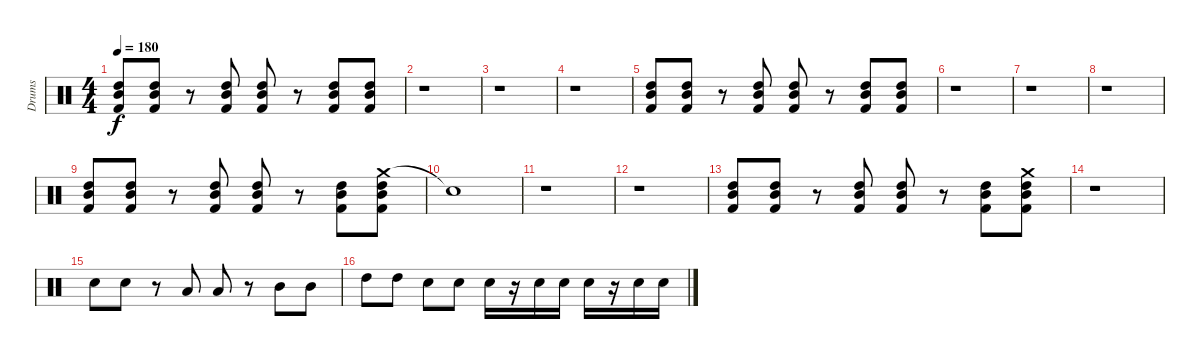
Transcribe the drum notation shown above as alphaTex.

\track ("Drums" "Drums") {instrument percussion}
\staff {score}
\articulation defaults
\ts (4 4)
\tempo 180
\clef neutral
\ks c
("Mid Tom (hit)" "High Tom (hit)" "Kick (hit) 2").8{dy f} ("High Tom (hit)" "Mid Tom (hit)" "Kick (hit) 2").8 r.8 ("Mid Tom (hit)" "High Tom (hit)" "Kick (hit) 2").8 ("Mid Tom (hit)" "High Tom (hit)" "Kick (hit) 2").8 r.8 ("Mid Tom (hit)" "High Tom (hit)" "Kick (hit) 2").8 ("Mid Tom (hit)" "High Tom (hit)" "Kick (hit) 2").8 |
r.1 |
r.1 |
r.1 |
("Mid Tom (hit)" "High Tom (hit)" "Kick (hit) 2").8 ("High Tom (hit)" "Mid Tom (hit)" "Kick (hit) 2").8 r.8 ("Mid Tom (hit)" "High Tom (hit)" "Kick (hit) 2").8 ("Mid Tom (hit)" "High Tom (hit)" "Kick (hit) 2").8 r.8 ("Mid Tom (hit)" "High Tom (hit)" "Kick (hit) 2").8 ("Mid Tom (hit)" "High Tom (hit)" "Kick (hit) 2").8 |
r.1 |
r.1 |
r.1 |
("Mid Tom (hit)" "High Tom (hit)" "Kick (hit) 2").8 ("High Tom (hit)" "Mid Tom (hit)" "Kick (hit) 2").8 r.8 ("Mid Tom (hit)" "High Tom (hit)" "Kick (hit) 2").8 ("Mid Tom (hit)" "High Tom (hit)" "Kick (hit) 2").8 r.8 ("Mid Tom (hit)" "High Tom (hit)" "Kick (hit) 2").8 ("Crash medium (hit)" "Mid Tom (hit)" "High Tom (hit)" "Kick (hit) 2").8 |
"Snare (hit)"{t}.1 |
r.1 |
r.1 |
("Mid Tom (hit)" "High Tom (hit)" "Kick (hit) 2").8 ("High Tom (hit)" "Mid Tom (hit)" "Kick (hit) 2").8 r.8 ("Mid Tom (hit)" "High Tom (hit)" "Kick (hit) 2").8 ("Mid Tom (hit)" "High Tom (hit)" "Kick (hit) 2").8 r.8 ("Mid Tom (hit)" "High Tom (hit)" "Kick (hit) 2").8 ("Crash medium (hit)" "Mid Tom (hit)" "High Tom (hit)" "Kick (hit) 2").8 |
r.1 |
"Electric Snare (hit)".8 "Electric Snare (hit)".8 r.8 "Low Tom (hit)".8 "Low Tom (hit)".8 r.8 "Mid Tom (hit)".8 "Mid Tom (hit)".8 |
"High Tom (hit)".8 "High Tom (hit)".8 "Electric Snare (hit)".8 "Electric Snare (hit)".8 "Electric Snare (hit)".16 r.16 "Electric Snare (hit)".16 "Electric Snare (hit)".16 "Electric Snare (hit)".16 r.16 "Electric Snare (hit)".16 "Electric Snare (hit)".16
